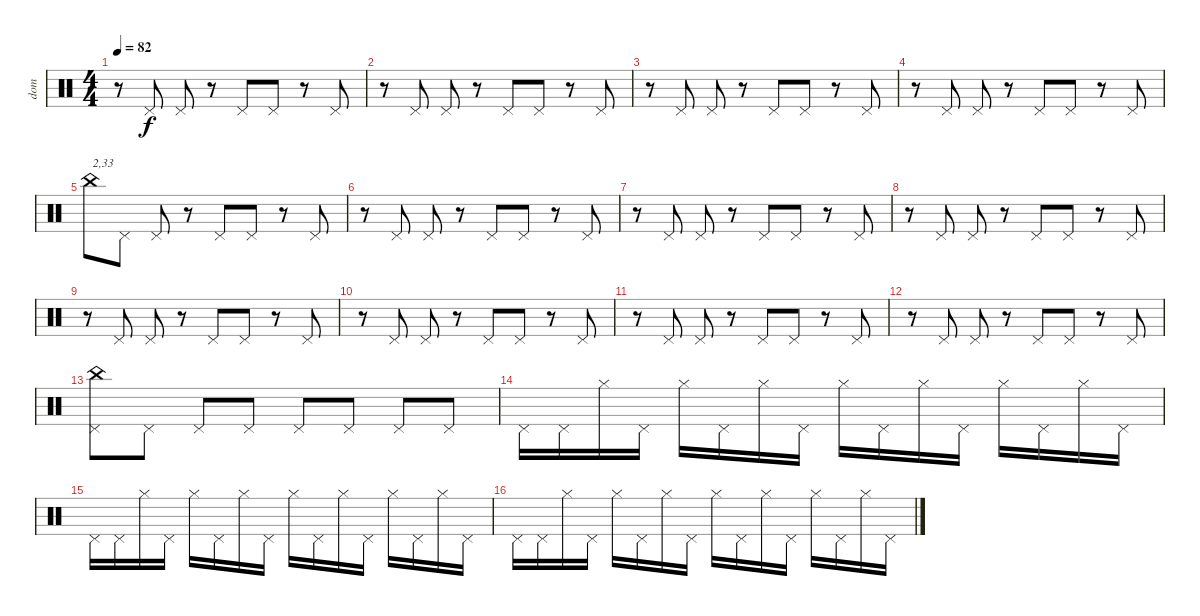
\track ("dom" "dom") {instrument percussion}
\staff {score}
\articulation defaults
\ts (4 4)
\tempo 82
\clef neutral
\ks c
r.8{dy f} "Pedal Hi-Hat (hit)".8 "Pedal Hi-Hat (hit)".8 r.8 "Pedal Hi-Hat (hit)".8 "Pedal Hi-Hat (hit)".8 r.8 "Pedal Hi-Hat (hit)".8 |
r.8 "Pedal Hi-Hat (hit)".8 "Pedal Hi-Hat (hit)".8 r.8 "Pedal Hi-Hat (hit)".8 "Pedal Hi-Hat (hit)".8 r.8 "Pedal Hi-Hat (hit)".8 |
r.8 "Pedal Hi-Hat (hit)".8 "Pedal Hi-Hat (hit)".8 r.8 "Pedal Hi-Hat (hit)".8 "Pedal Hi-Hat (hit)".8 r.8 "Pedal Hi-Hat (hit)".8 |
r.8 "Pedal Hi-Hat (hit)".8 "Pedal Hi-Hat (hit)".8 r.8 "Pedal Hi-Hat (hit)".8 "Pedal Hi-Hat (hit)".8 r.8 "Pedal Hi-Hat (hit)".8 |
"China (hit)".8{txt "2,33"} "Pedal Hi-Hat (hit)".8 "Pedal Hi-Hat (hit)".8 r.8 "Pedal Hi-Hat (hit)".8 "Pedal Hi-Hat (hit)".8 r.8 "Pedal Hi-Hat (hit)".8 |
r.8 "Pedal Hi-Hat (hit)".8 "Pedal Hi-Hat (hit)".8 r.8 "Pedal Hi-Hat (hit)".8 "Pedal Hi-Hat (hit)".8 r.8 "Pedal Hi-Hat (hit)".8 |
r.8 "Pedal Hi-Hat (hit)".8 "Pedal Hi-Hat (hit)".8 r.8 "Pedal Hi-Hat (hit)".8 "Pedal Hi-Hat (hit)".8 r.8 "Pedal Hi-Hat (hit)".8 |
r.8 "Pedal Hi-Hat (hit)".8 "Pedal Hi-Hat (hit)".8 r.8 "Pedal Hi-Hat (hit)".8 "Pedal Hi-Hat (hit)".8 r.8 "Pedal Hi-Hat (hit)".8 |
r.8 "Pedal Hi-Hat (hit)".8 "Pedal Hi-Hat (hit)".8 r.8 "Pedal Hi-Hat (hit)".8 "Pedal Hi-Hat (hit)".8 r.8 "Pedal Hi-Hat (hit)".8 |
r.8 "Pedal Hi-Hat (hit)".8 "Pedal Hi-Hat (hit)".8 r.8 "Pedal Hi-Hat (hit)".8 "Pedal Hi-Hat (hit)".8 r.8 "Pedal Hi-Hat (hit)".8 |
r.8 "Pedal Hi-Hat (hit)".8 "Pedal Hi-Hat (hit)".8 r.8 "Pedal Hi-Hat (hit)".8 "Pedal Hi-Hat (hit)".8 r.8 "Pedal Hi-Hat (hit)".8 |
r.8 "Pedal Hi-Hat (hit)".8 "Pedal Hi-Hat (hit)".8 r.8 "Pedal Hi-Hat (hit)".8 "Pedal Hi-Hat (hit)".8 r.8 "Pedal Hi-Hat (hit)".8 |
("China (hit)" "Pedal Hi-Hat (hit)").8 "Pedal Hi-Hat (hit)".8 "Pedal Hi-Hat (hit)".8 "Pedal Hi-Hat (hit)".8 "Pedal Hi-Hat (hit)".8 "Pedal Hi-Hat (hit)".8 "Pedal Hi-Hat (hit)".8 "Pedal Hi-Hat (hit)".8 |
"Pedal Hi-Hat (hit)".16 "Pedal Hi-Hat (hit)".16 "Hi-Hat (closed)".16 "Pedal Hi-Hat (hit)".16 "Hi-Hat (closed)".16 "Pedal Hi-Hat (hit)".16 "Hi-Hat (closed)".16 "Pedal Hi-Hat (hit)".16 "Hi-Hat (closed)".16 "Pedal Hi-Hat (hit)".16 "Hi-Hat (closed)".16 "Pedal Hi-Hat (hit)".16 "Hi-Hat (closed)".16 "Pedal Hi-Hat (hit)".16 "Hi-Hat (closed)".16 "Pedal Hi-Hat (hit)".16 |
"Pedal Hi-Hat (hit)".16 "Pedal Hi-Hat (hit)".16 "Hi-Hat (closed)".16 "Pedal Hi-Hat (hit)".16 "Hi-Hat (closed)".16 "Pedal Hi-Hat (hit)".16 "Hi-Hat (closed)".16 "Pedal Hi-Hat (hit)".16 "Hi-Hat (closed)".16 "Pedal Hi-Hat (hit)".16 "Hi-Hat (closed)".16 "Pedal Hi-Hat (hit)".16 "Hi-Hat (closed)".16 "Pedal Hi-Hat (hit)".16 "Hi-Hat (closed)".16 "Pedal Hi-Hat (hit)".16 |
"Pedal Hi-Hat (hit)".16 "Pedal Hi-Hat (hit)".16 "Hi-Hat (closed)".16 "Pedal Hi-Hat (hit)".16 "Hi-Hat (closed)".16 "Pedal Hi-Hat (hit)".16 "Hi-Hat (closed)".16 "Pedal Hi-Hat (hit)".16 "Hi-Hat (closed)".16 "Pedal Hi-Hat (hit)".16 "Hi-Hat (closed)".16 "Pedal Hi-Hat (hit)".16 "Hi-Hat (closed)".16 "Pedal Hi-Hat (hit)".16 "Hi-Hat (closed)".16 "Pedal Hi-Hat (hit)".16
